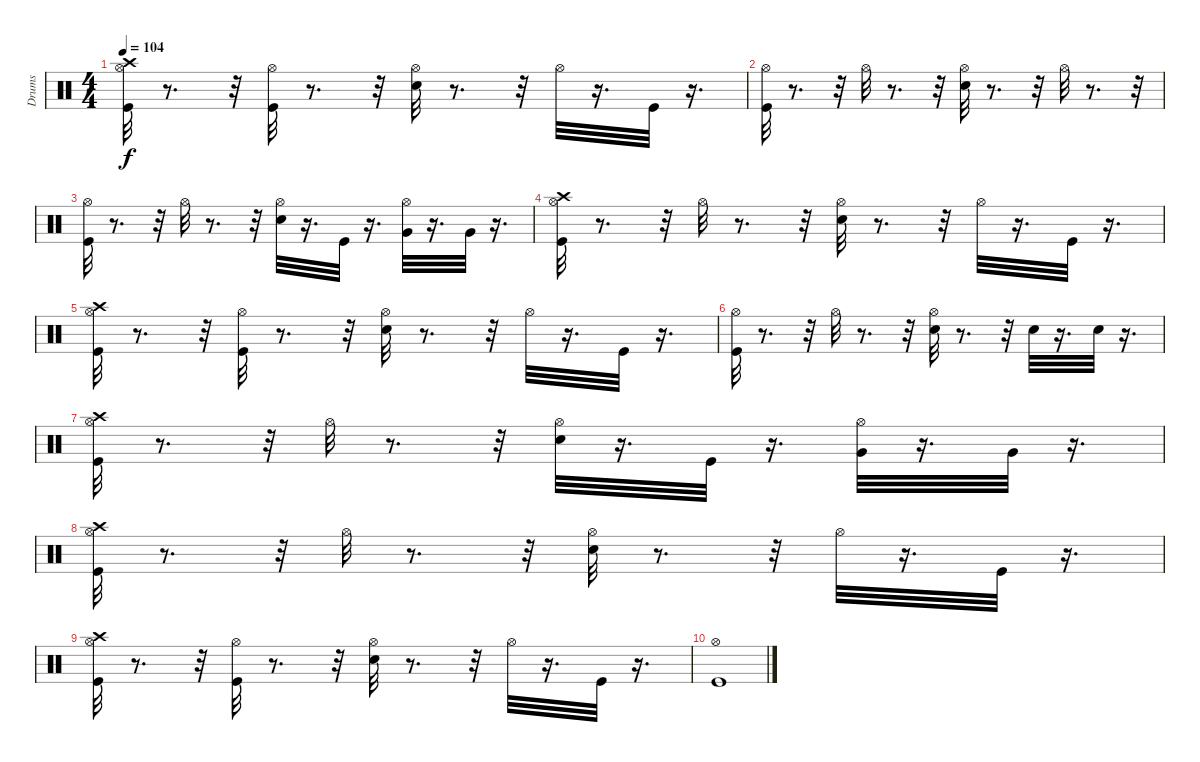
\track ("Drums" "Drums") {instrument percussion}
\staff {score}
\articulation defaults
\ts (4 4)
\tempo 104
\clef neutral
\ks c
("Crash high (hit)" "Hi-Hat (open)" "Kick (hit)").32{dy f} r.8{d} r.32 ("Kick (hit)" "Hi-Hat (open)").32 r.8{d} r.32 ("Hi-Hat (open)" "Electric Snare (hit)").32 r.8{d} r.32 "Hi-Hat (open)".32 r.16{d} "Kick (hit)".32 r.16{d} |
("Hi-Hat (open)" "Kick (hit)").32 r.8{d} r.32 "Hi-Hat (open)".32 r.8{d} r.32 ("Electric Snare (hit)" "Hi-Hat (open)").32 r.8{d} r.32 "Hi-Hat (open)".32 r.8{d} r.32 |
("Hi-Hat (open)" "Kick (hit)").32 r.8{d} r.32 "Hi-Hat (open)".32 r.8{d} r.32 ("Hi-Hat (open)" "Electric Snare (hit)").32 r.16{d} "Kick (hit)".32 r.16{d} ("Very Low Tom (hit)" "Hi-Hat (open)").32 r.16{d} "Very Low Tom (hit)".32 r.16{d} |
("Crash high (hit)" "Hi-Hat (open)" "Kick (hit)").32 r.8{d} r.32 "Hi-Hat (open)".32 r.8{d} r.32 ("Hi-Hat (open)" "Electric Snare (hit)").32 r.8{d} r.32 "Hi-Hat (open)".32 r.16{d} "Kick (hit)".32 r.16{d} |
("Crash high (hit)" "Hi-Hat (open)" "Kick (hit)").32 r.8{d} r.32 ("Kick (hit)" "Hi-Hat (open)").32 r.8{d} r.32 ("Hi-Hat (open)" "Electric Snare (hit)").32 r.8{d} r.32 "Hi-Hat (open)".32 r.16{d} "Kick (hit)".32 r.16{d} |
("Hi-Hat (open)" "Kick (hit)").32 r.8{d} r.32 "Hi-Hat (open)".32 r.8{d} r.32 ("Electric Snare (hit)" "Hi-Hat (open)").32 r.8{d} r.32 "Electric Snare (hit)".32 r.16{d} "Electric Snare (hit)".32 r.16{d} |
("Crash high (hit)" "Hi-Hat (open)" "Kick (hit)").32 r.8{d} r.32 "Hi-Hat (open)".32 r.8{d} r.32 ("Hi-Hat (open)" "Electric Snare (hit)").32 r.16{d} "Kick (hit)".32 r.16{d} ("Very Low Tom (hit)" "Hi-Hat (open)").32 r.16{d} "Very Low Tom (hit)".32 r.16{d} |
("Crash high (hit)" "Hi-Hat (open)" "Kick (hit)").32 r.8{d} r.32 "Hi-Hat (open)".32 r.8{d} r.32 ("Hi-Hat (open)" "Electric Snare (hit)").32 r.8{d} r.32 "Hi-Hat (open)".32 r.16{d} "Kick (hit)".32 r.16{d} |
("Crash high (hit)" "Hi-Hat (open)" "Kick (hit)").32 r.8{d} r.32 ("Kick (hit)" "Hi-Hat (open)").32 r.8{d} r.32 ("Hi-Hat (open)" "Electric Snare (hit)").32 r.8{d} r.32 "Hi-Hat (open)".32 r.16{d} "Kick (hit)".32 r.16{d} |
("Hi-Hat (open)" "Kick (hit)").1
